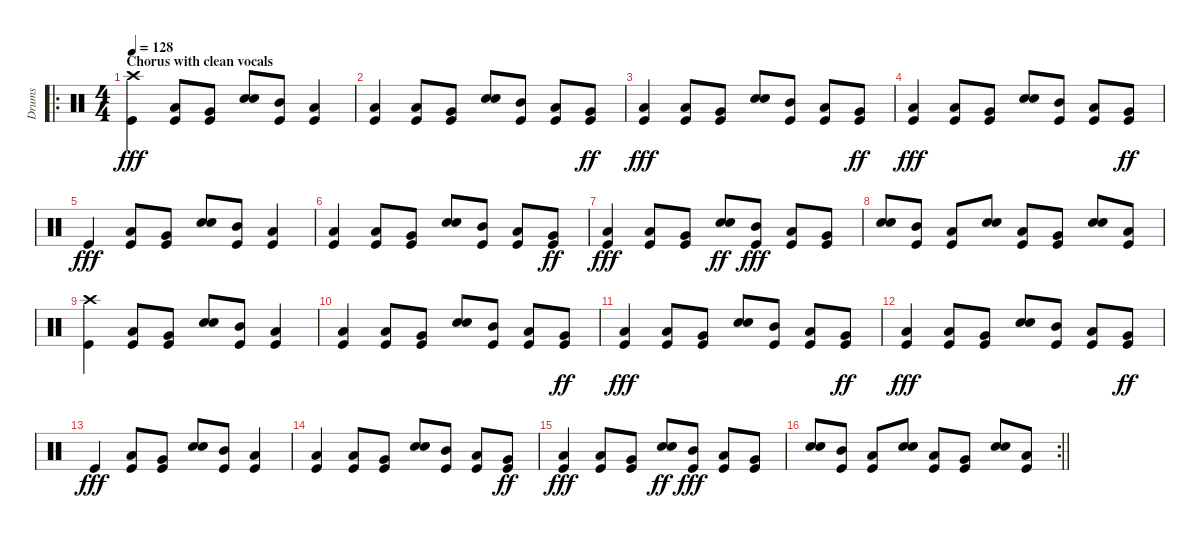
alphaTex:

\track ("Drums" "Drums") {instrument percussion}
\staff {score}
\articulation defaults
\ro
\ts (4 4)
\section ("" "Chorus with clean vocals")
\tempo 128
\clef neutral
\ks c
("Crash high (hit)" "Kick (hit)").4{dy fff} ("Low Tom (hit)" "Kick (hit)").8 ("Very Low Tom (hit)" "Kick (hit)").8 ("Snare (hit) 2" "Electric Snare (hit)").8 ("Mid Tom (hit)" "Kick (hit)").8 ("Low Tom (hit)" "Kick (hit)").4 |
("Low Tom (hit)" "Kick (hit)").4 ("Low Tom (hit)" "Kick (hit)").8 ("Very Low Tom (hit)" "Kick (hit)").8 ("Snare (hit) 2" "Electric Snare (hit)").8 ("Mid Tom (hit)" "Kick (hit)").8 ("Low Tom (hit)" "Kick (hit)").8 ("Very Low Tom (hit)" "Kick (hit)").8{dy ff} |
("Low Tom (hit)" "Kick (hit)").4{dy fff} ("Low Tom (hit)" "Kick (hit)").8 ("Very Low Tom (hit)" "Kick (hit)").8 ("Snare (hit) 2" "Electric Snare (hit)").8 ("Mid Tom (hit)" "Kick (hit)").8 ("Low Tom (hit)" "Kick (hit)").8 ("Very Low Tom (hit)" "Kick (hit)").8{dy ff} |
("Low Tom (hit)" "Kick (hit)").4{dy fff} ("Low Tom (hit)" "Kick (hit)").8 ("Very Low Tom (hit)" "Kick (hit)").8 ("Snare (hit) 2" "Electric Snare (hit)").8 ("Mid Tom (hit)" "Kick (hit)").8 ("Low Tom (hit)" "Kick (hit)").8 ("Very Low Tom (hit)" "Kick (hit)").8{dy ff} |
"Kick (hit)".4{dy fff} ("Low Tom (hit)" "Kick (hit)").8 ("Very Low Tom (hit)" "Kick (hit)").8 ("Snare (hit) 2" "Electric Snare (hit)").8 ("Mid Tom (hit)" "Kick (hit)").8 ("Low Tom (hit)" "Kick (hit)").4 |
("Low Tom (hit)" "Kick (hit)").4 ("Low Tom (hit)" "Kick (hit)").8 ("Very Low Tom (hit)" "Kick (hit)").8 ("Snare (hit) 2" "Electric Snare (hit)").8 ("Mid Tom (hit)" "Kick (hit)").8 ("Low Tom (hit)" "Kick (hit)").8 ("Very Low Tom (hit)" "Kick (hit)").8{dy ff} |
("Low Tom (hit)" "Kick (hit)").4{dy fff} ("Low Tom (hit)" "Kick (hit)").8 ("Very Low Tom (hit)" "Kick (hit)").8 ("Snare (hit) 2" "Electric Snare (hit)").8{dy ff} ("Mid Tom (hit)" "Kick (hit)").8{dy fff} ("Low Tom (hit)" "Kick (hit)").8 ("Very Low Tom (hit)" "Kick (hit)").8 |
("Snare (hit) 2" "Electric Snare (hit)").8 ("Mid Tom (hit)" "Kick (hit)").8 ("Low Tom (hit)" "Kick (hit)").8 ("Snare (hit) 2" "Electric Snare (hit)").8 ("Low Tom (hit)" "Kick (hit)").8 ("Very Low Tom (hit)" "Kick (hit)").8 ("Snare (hit) 2" "Electric Snare (hit)").8 ("Low Tom (hit)" "Kick (hit)").8 |
("Crash high (hit)" "Kick (hit)").4 ("Low Tom (hit)" "Kick (hit)").8 ("Very Low Tom (hit)" "Kick (hit)").8 ("Snare (hit) 2" "Electric Snare (hit)").8 ("Mid Tom (hit)" "Kick (hit)").8 ("Low Tom (hit)" "Kick (hit)").4 |
("Low Tom (hit)" "Kick (hit)").4 ("Low Tom (hit)" "Kick (hit)").8 ("Very Low Tom (hit)" "Kick (hit)").8 ("Snare (hit) 2" "Electric Snare (hit)").8 ("Mid Tom (hit)" "Kick (hit)").8 ("Low Tom (hit)" "Kick (hit)").8 ("Very Low Tom (hit)" "Kick (hit)").8{dy ff} |
("Low Tom (hit)" "Kick (hit)").4{dy fff} ("Low Tom (hit)" "Kick (hit)").8 ("Very Low Tom (hit)" "Kick (hit)").8 ("Snare (hit) 2" "Electric Snare (hit)").8 ("Mid Tom (hit)" "Kick (hit)").8 ("Low Tom (hit)" "Kick (hit)").8 ("Very Low Tom (hit)" "Kick (hit)").8{dy ff} |
("Low Tom (hit)" "Kick (hit)").4{dy fff} ("Low Tom (hit)" "Kick (hit)").8 ("Very Low Tom (hit)" "Kick (hit)").8 ("Snare (hit) 2" "Electric Snare (hit)").8 ("Mid Tom (hit)" "Kick (hit)").8 ("Low Tom (hit)" "Kick (hit)").8 ("Very Low Tom (hit)" "Kick (hit)").8{dy ff} |
"Kick (hit)".4{dy fff} ("Low Tom (hit)" "Kick (hit)").8 ("Very Low Tom (hit)" "Kick (hit)").8 ("Snare (hit) 2" "Electric Snare (hit)").8 ("Mid Tom (hit)" "Kick (hit)").8 ("Low Tom (hit)" "Kick (hit)").4 |
("Low Tom (hit)" "Kick (hit)").4 ("Low Tom (hit)" "Kick (hit)").8 ("Very Low Tom (hit)" "Kick (hit)").8 ("Snare (hit) 2" "Electric Snare (hit)").8 ("Mid Tom (hit)" "Kick (hit)").8 ("Low Tom (hit)" "Kick (hit)").8 ("Very Low Tom (hit)" "Kick (hit)").8{dy ff} |
("Low Tom (hit)" "Kick (hit)").4{dy fff} ("Low Tom (hit)" "Kick (hit)").8 ("Very Low Tom (hit)" "Kick (hit)").8 ("Snare (hit) 2" "Electric Snare (hit)").8{dy ff} ("Mid Tom (hit)" "Kick (hit)").8{dy fff} ("Low Tom (hit)" "Kick (hit)").8 ("Very Low Tom (hit)" "Kick (hit)").8 |
\rc 2
\barLineRight lightlight
("Snare (hit) 2" "Electric Snare (hit)").8 ("Mid Tom (hit)" "Kick (hit)").8 ("Low Tom (hit)" "Kick (hit)").8 ("Snare (hit) 2" "Electric Snare (hit)").8 ("Low Tom (hit)" "Kick (hit)").8 ("Very Low Tom (hit)" "Kick (hit)").8 ("Snare (hit) 2" "Electric Snare (hit)").8 ("Low Tom (hit)" "Kick (hit)").8
